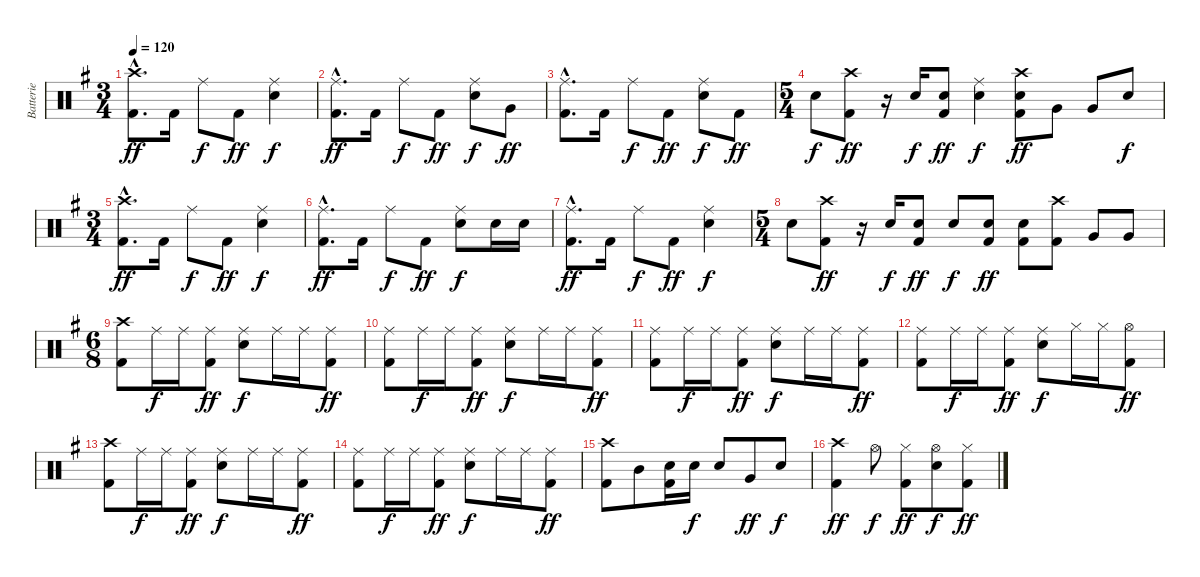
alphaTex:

\track ("Batterie" "Batterie") {instrument percussion}
\staff {score}
\articulation defaults
\ts (3 4)
\tempo 120
\clef neutral
\ks g
("Crash high (hit)"{hac} "Kick (hit) 2"{hac}).8{d dy ff} "Kick (hit) 2".16 "Ride (middle)".8{dy f} "Kick (hit) 2".8{dy ff} ("Ride (middle)" "Snare (hit) 2").4{dy f} |
("Ride (middle)"{hac} "Kick (hit) 2"{hac}).8{d dy ff} "Kick (hit) 2".16 "Ride (middle)".8{dy f} "Kick (hit) 2".8{dy ff} ("Ride (middle)" "Snare (hit) 2").8{dy f} "Very Low Tom (hit)".8{dy ff} |
("Ride (middle)"{hac} "Kick (hit) 2"{hac}).8{d} "Kick (hit) 2".16 "Ride (middle)".8{dy f} "Kick (hit) 2".8{dy ff} ("Ride (middle)" "Snare (hit) 2").8{dy f} "Kick (hit) 2".8{dy ff} |
\ts (5 4)
"Snare (hit) 2".8{dy f} ("Crash high (hit)" "Kick (hit) 2").8{dy ff} r.16 "Snare (hit) 2".16{dy f} ("Snare (hit) 2" "Kick (hit) 2").8{dy ff} ("Ride (middle)" "Snare (hit) 2").4{dy f} ("Crash high (hit)" "Snare (hit) 2" "Kick (hit) 2").8{dy ff} "Very Low Tom (hit)".8 "Very Low Tom (hit)".8 "Snare (hit) 2".8{dy f} |
\ts (3 4)
("Crash high (hit)"{hac} "Kick (hit) 2"{hac}).8{d dy ff} "Kick (hit) 2".16 "Ride (middle)".8{dy f} "Kick (hit) 2".8{dy ff} ("Ride (middle)" "Snare (hit) 2").4{dy f} |
("Ride (middle)"{hac} "Kick (hit) 2"{hac}).8{d dy ff} "Kick (hit) 2".16 "Ride (middle)".8{dy f} "Kick (hit) 2".8{dy ff} ("Ride (middle)" "Snare (hit) 2").8{dy f} "Snare (hit) 2".16 "Snare (hit) 2".16 |
("Ride (middle)"{hac} "Kick (hit) 2"{hac}).8{d dy ff} "Kick (hit) 2".16 "Ride (middle)".8{dy f} "Kick (hit) 2".8{dy ff} ("Ride (middle)" "Snare (hit) 2").4{dy f} |
\ts (5 4)
"Snare (hit) 2".8 ("Crash high (hit)" "Kick (hit) 2").8{dy ff} r.16 "Snare (hit) 2".16{dy f} ("Snare (hit) 2" "Kick (hit) 2").8{dy ff} "Snare (hit) 2".8{dy f} ("Snare (hit) 2" "Kick (hit) 2").8{dy ff} ("Snare (hit) 2" "Kick (hit) 2").8 ("Crash high (hit)" "Kick (hit) 2").8 "Very Low Tom (hit)".8 "Very Low Tom (hit)".8 |
\ts (6 8)
("Crash high (hit)" "Kick (hit) 2").8 "Ride (middle)".16{dy f} "Ride (middle)".16 ("Ride (middle)" "Kick (hit) 2").8{dy ff} ("Ride (middle)" "Snare (hit) 2").8{dy f} "Ride (middle)".16 "Ride (middle)".16 ("Ride (middle)" "Kick (hit) 2").8{dy ff} |
("Ride (middle)" "Kick (hit) 2").8 "Ride (middle)".16{dy f} "Ride (middle)".16 ("Ride (middle)" "Kick (hit) 2").8{dy ff} ("Ride (middle)" "Snare (hit) 2").8{dy f} "Ride (middle)".16 "Ride (middle)".16 ("Ride (middle)" "Kick (hit) 2").8{dy ff} |
("Ride (middle)" "Kick (hit) 2").8 "Ride (middle)".16{dy f} "Ride (middle)".16 ("Ride (middle)" "Kick (hit) 2").8{dy ff} ("Ride (middle)" "Snare (hit) 2").8{dy f} "Ride (middle)".16 "Ride (middle)".16 ("Ride (middle)" "Kick (hit) 2").8{dy ff} |
("Ride (middle)" "Kick (hit) 2").8 "Ride (middle)".16{dy f} "Ride (middle)".16 ("Ride (middle)" "Kick (hit) 2").8{dy ff} ("Ride (middle)" "Snare (hit) 2").8{dy f} "Hi-Hat (closed)".16 "Hi-Hat (closed)".16 ("Hi-Hat (open)" "Kick (hit) 2").8{dy ff} |
("Crash high (hit)" "Kick (hit) 2").8 "Ride (middle)".16{dy f} "Ride (middle)".16 ("Ride (middle)" "Kick (hit) 2").8{dy ff} ("Ride (middle)" "Snare (hit) 2").8{dy f} "Ride (middle)".16 "Ride (middle)".16 ("Ride (middle)" "Kick (hit) 2").8{dy ff} |
("Ride (middle)" "Kick (hit) 2").8 "Ride (middle)".16{dy f} "Ride (middle)".16 ("Ride (middle)" "Kick (hit) 2").8{dy ff} ("Ride (middle)" "Snare (hit) 2").8{dy f} "Ride (middle)".16 "Ride (middle)".16 ("Ride (middle)" "Kick (hit) 2").8{dy ff} |
("Crash high (hit)" "Kick (hit) 2").8 "Mid Tom (hit)".8 ("Snare (hit) 2" "Kick (hit) 2").16 "Snare (hit) 2".16{dy f} "Snare (hit) 2".8 "Very Low Tom (hit)".8{dy ff} "Snare (hit) 2".8{dy f} |
("Crash high (hit)" "Kick (hit) 2").4{dy ff} "Hi-Hat (open)".8{dy f} ("Hi-Hat (closed)" "Kick (hit) 2").8{dy ff} ("Hi-Hat (open)" "Snare (hit) 2").8{dy f} ("Hi-Hat (closed)" "Kick (hit) 2").8{dy ff}
